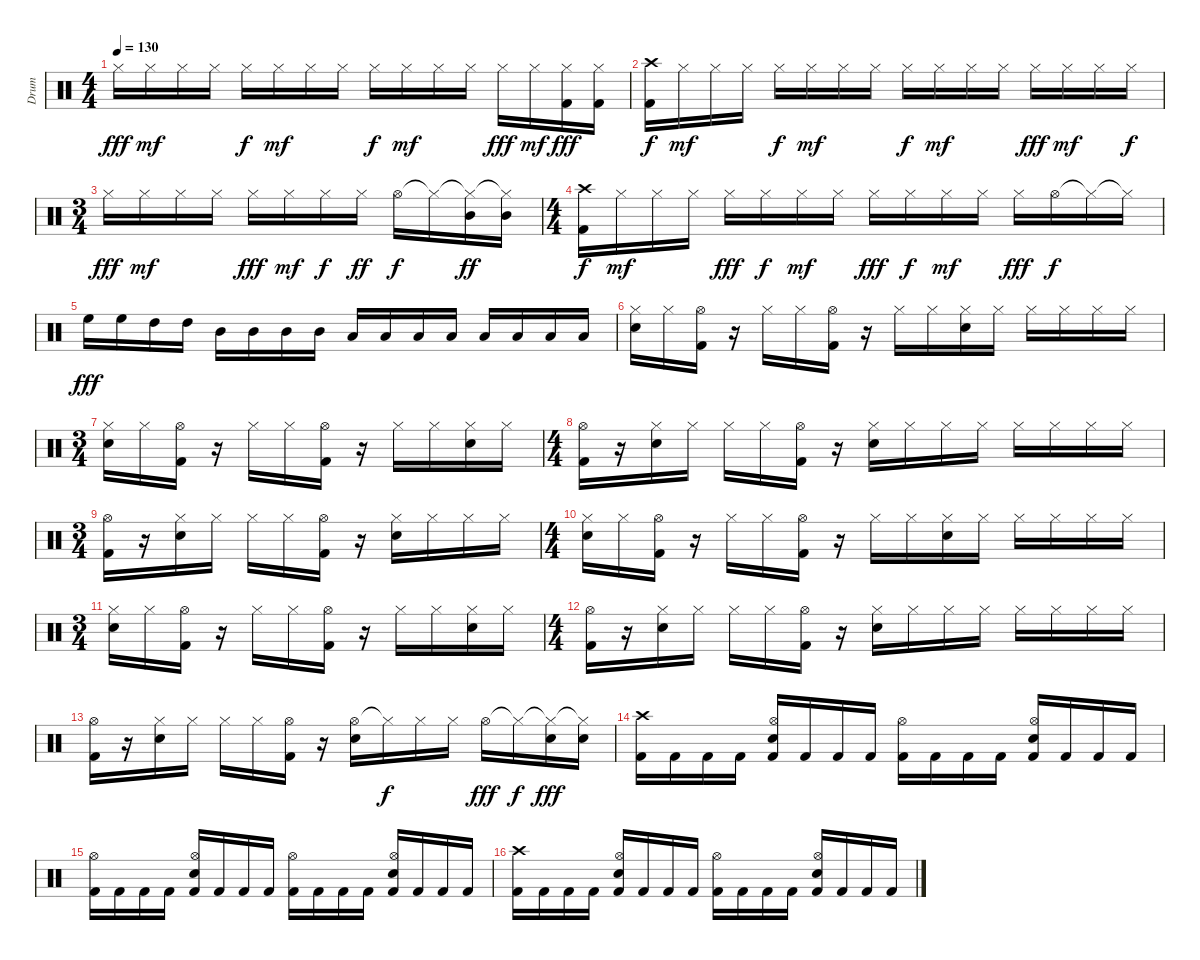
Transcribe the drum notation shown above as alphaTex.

\track ("Drum" "Drum") {instrument percussion}
\staff {score}
\articulation defaults
\ts (4 4)
\tempo 130
\clef neutral
\ks c "Hi-Hat (closed)".16{dy fff} "Hi-Hat (closed)".16{dy mf} "Hi-Hat (closed)".16 "Hi-Hat (closed)".16 "Hi-Hat (closed)".16{dy f} "Hi-Hat (closed)".16{dy mf} "Hi-Hat (closed)".16 "Hi-Hat (closed)".16 "Hi-Hat (closed)".16{dy f} "Hi-Hat (closed)".16{dy mf} "Hi-Hat (closed)".16 "Hi-Hat (closed)".16 "Hi-Hat (closed)".16{dy fff} "Hi-Hat (closed)".16{dy mf}
("Hi-Hat (closed)" "Kick (hit) 2").16{dy fff} ("Hi-Hat (closed)" "Kick (hit) 2").16 |
("Crash high (hit)" "Kick (hit) 2").16{dy f} "Hi-Hat (closed)".16{dy mf} "Hi-Hat (closed)".16 "Hi-Hat (closed)".16 "Hi-Hat (closed)".16{dy f} "Hi-Hat (closed)".16{dy mf} "Hi-Hat (closed)".16 "Hi-Hat (closed)".16 "Hi-Hat (closed)".16{dy f} "Hi-Hat (closed)".16{dy mf} "Hi-Hat (closed)".16 "Hi-Hat (closed)".16 "Hi-Hat (closed)".16{dy fff} "Hi-Hat (closed)".16{dy mf} "Hi-Hat (closed)".16 "Hi-Hat (closed)".16{dy f} |
\ts (3 4)
"Hi-Hat (closed)".16{dy fff} "Hi-Hat (closed)".16{dy mf} "Hi-Hat (closed)".16 "Hi-Hat (closed)".16 "Hi-Hat (closed)".16{dy fff} "Hi-Hat (closed)".16{dy mf} "Hi-Hat (closed)".16{dy f} "Hi-Hat (closed)".16{dy ff} "Hi-Hat (open)".16{dy f} "Hi-Hat (closed)"{t}.16 ("Hi-Hat (closed)"{t} "Mid Tom (hit)").16{dy ff} ("Hi-Hat (closed)"{t} "Mid Tom (hit)").16 |
\ts (4 4)
("Crash high (hit)" "Kick (hit) 2").16{dy f} "Hi-Hat (closed)".16{dy mf} "Hi-Hat (closed)".16 "Hi-Hat (closed)".16 "Hi-Hat (closed)".16{dy fff} "Hi-Hat (closed)".16{dy f} "Hi-Hat (closed)".16{dy mf} "Hi-Hat (closed)".16 "Hi-Hat (closed)".16{dy fff} "Hi-Hat (closed)".16{dy f} "Hi-Hat (closed)".16{dy mf} "Hi-Hat (closed)".16 "Hi-Hat (closed)".16{dy fff} "Hi-Hat (open)".16{dy f} "Hi-Hat (closed)"{t}.16 "Hi-Hat (closed)"{t}.16 |
"High Floor Tom (hit)".16{dy fff} "High Floor Tom (hit)".16 "High Tom (hit)".16 "High Tom (hit)".16 "Mid Tom (hit)".16 "Mid Tom (hit)".16 "Mid Tom (hit)".16 "Mid Tom (hit)".16 "Low Tom (hit)".16 "Low Tom (hit)".16 "Low Tom (hit)".16 "Low Tom (hit)".16 "Low Tom (hit)".16 "Low Tom (hit)".16 "Low Tom (hit)".16 "Low Tom (hit)".16 |
("Hi-Hat (closed)" "Snare (hit) 2").16 "Hi-Hat (closed)".16 ("Hi-Hat (open)" "Kick (hit) 2").16 r.16 "Hi-Hat (closed)".16 "Hi-Hat (closed)".16 ("Hi-Hat (open)" "Kick (hit) 2").16 r.16 "Hi-Hat (closed)".16 "Hi-Hat (closed)".16 ("Hi-Hat (closed)" "Snare (hit) 2").16 "Hi-Hat (closed)".16 "Hi-Hat (closed)".16 "Hi-Hat (closed)".16 "Hi-Hat (closed)".16 "Hi-Hat (closed)".16 |
\ts (3 4)
("Hi-Hat (closed)" "Snare (hit) 2").16 "Hi-Hat (closed)".16 ("Hi-Hat (open)" "Kick (hit) 2").16 r.16 "Hi-Hat (closed)".16 "Hi-Hat (closed)".16 ("Hi-Hat (open)" "Kick (hit) 2").16 r.16 "Hi-Hat (closed)".16 "Hi-Hat (closed)".16 ("Hi-Hat (closed)" "Snare (hit) 2").16 "Hi-Hat (closed)".16 |
\ts (4 4)
("Hi-Hat (open)" "Kick (hit) 2").16 r.16 ("Hi-Hat (closed)" "Snare (hit) 2").16 "Hi-Hat (closed)".16 "Hi-Hat (closed)".16 "Hi-Hat (closed)".16 ("Hi-Hat (open)" "Kick (hit) 2").16 r.16 ("Hi-Hat (closed)" "Snare (hit) 2").16 "Hi-Hat (closed)".16 "Hi-Hat (closed)".16 "Hi-Hat (closed)".16 "Hi-Hat (closed)".16 "Hi-Hat (closed)".16 "Hi-Hat (closed)".16 "Hi-Hat (closed)".16 |
\ts (3 4)
("Hi-Hat (open)" "Kick (hit) 2").16 r.16 ("Hi-Hat (closed)" "Snare (hit) 2").16 "Hi-Hat (closed)".16 "Hi-Hat (closed)".16 "Hi-Hat (closed)".16 ("Hi-Hat (open)" "Kick (hit) 2").16 r.16 ("Hi-Hat (closed)" "Snare (hit) 2").16 "Hi-Hat (closed)".16 "Hi-Hat (closed)".16 "Hi-Hat (closed)".16 |
\ts (4 4)
("Hi-Hat (closed)" "Snare (hit) 2").16 "Hi-Hat (closed)".16 ("Hi-Hat (open)" "Kick (hit) 2").16 r.16 "Hi-Hat (closed)".16 "Hi-Hat (closed)".16 ("Hi-Hat (open)" "Kick (hit) 2").16 r.16 "Hi-Hat (closed)".16 "Hi-Hat (closed)".16 ("Hi-Hat (closed)" "Snare (hit) 2").16 "Hi-Hat (closed)".16 "Hi-Hat (closed)".16 "Hi-Hat (closed)".16 "Hi-Hat (closed)".16 "Hi-Hat (closed)".16 |
\ts (3 4)
("Hi-Hat (closed)" "Snare (hit) 2").16 "Hi-Hat (closed)".16 ("Hi-Hat (open)" "Kick (hit) 2").16 r.16 "Hi-Hat (closed)".16 "Hi-Hat (closed)".16 ("Hi-Hat (open)" "Kick (hit) 2").16 r.16 "Hi-Hat (closed)".16 "Hi-Hat (closed)".16 ("Hi-Hat (closed)" "Snare (hit) 2").16 "Hi-Hat (closed)".16 |
\ts (4 4)
("Hi-Hat (open)" "Kick (hit) 2").16 r.16 ("Hi-Hat (closed)" "Snare (hit) 2").16 "Hi-Hat (closed)".16 "Hi-Hat (closed)".16 "Hi-Hat (closed)".16 ("Hi-Hat (open)" "Kick (hit) 2").16 r.16 ("Hi-Hat (closed)" "Snare (hit) 2").16 "Hi-Hat (closed)".16 "Hi-Hat (closed)".16 "Hi-Hat (closed)".16 "Hi-Hat (closed)".16 "Hi-Hat (closed)".16 "Hi-Hat (closed)".16 "Hi-Hat (closed)".16 |
("Hi-Hat (open)" "Kick (hit) 2").16 r.16 ("Hi-Hat (closed)" "Snare (hit) 2").16 "Hi-Hat (closed)".16 "Hi-Hat (closed)".16 "Hi-Hat (closed)".16 ("Hi-Hat (open)" "Kick (hit) 2").16 r.16 ("Hi-Hat (open)" "Snare (hit) 2").16 "Hi-Hat (closed)"{t}.16{dy f} "Hi-Hat (closed)".16 "Hi-Hat (closed)".16 "Hi-Hat (open)".16{dy fff} "Hi-Hat (closed)"{t}.16{dy f} ("Hi-Hat (closed)"{t} "Snare (hit) 2").16{dy fff} ("Hi-Hat (closed)"{t} "Snare (hit) 2").16 |
("Crash high (hit)" "Kick (hit) 2").16 "Kick (hit) 2".16 "Kick (hit) 2".16 "Kick (hit) 2".16 ("Hi-Hat (open)" "Snare (hit) 2" "Kick (hit) 2").16 "Kick (hit) 2".16 "Kick (hit) 2".16 "Kick (hit) 2".16 ("Hi-Hat (open)" "Kick (hit) 2").16 "Kick (hit) 2".16 "Kick (hit) 2".16 "Kick (hit) 2".16 ("Hi-Hat (open)" "Snare (hit) 2" "Kick (hit) 2").16 "Kick (hit) 2".16 "Kick (hit) 2".16 "Kick (hit) 2".16 |
("Hi-Hat (open)" "Kick (hit) 2").16 "Kick (hit) 2".16 "Kick (hit) 2".16 "Kick (hit) 2".16 ("Hi-Hat (open)" "Snare (hit) 2" "Kick (hit) 2").16 "Kick (hit) 2".16 "Kick (hit) 2".16 "Kick (hit) 2".16 ("Hi-Hat (open)" "Kick (hit) 2").16 "Kick (hit) 2".16 "Kick (hit) 2".16 "Kick (hit) 2".16 ("Hi-Hat (open)" "Snare (hit) 2" "Kick (hit) 2").16 "Kick (hit) 2".16 "Kick (hit) 2".16 "Kick (hit) 2".16 |
("Crash high (hit)" "Kick (hit) 2").16 "Kick (hit) 2".16 "Kick (hit) 2".16 "Kick (hit) 2".16 ("Hi-Hat (open)" "Snare (hit) 2" "Kick (hit) 2").16 "Kick (hit) 2".16 "Kick (hit) 2".16 "Kick (hit) 2".16 ("Hi-Hat (open)" "Kick (hit) 2").16 "Kick (hit) 2".16 "Kick (hit) 2".16 "Kick (hit) 2".16 ("Hi-Hat (open)" "Snare (hit) 2" "Kick (hit) 2").16 "Kick (hit) 2".16 "Kick (hit) 2".16 "Kick (hit) 2".16
